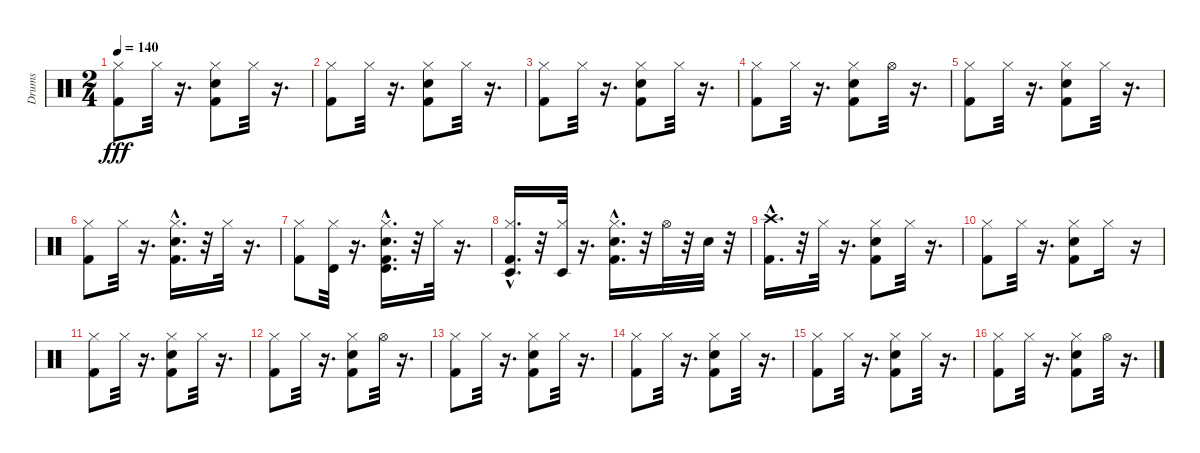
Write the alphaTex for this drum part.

\track ("Drums" "Drums") {instrument percussion}
\staff {score}
\articulation defaults
\ts (2 4)
\tempo 140
\clef neutral
\ks c
("Kick (hit) 2" "Hi-Hat (closed)").8{dy fff} "Hi-Hat (closed)".32 r.16{d} ("Snare (hit) 2" "Kick (hit) 2" "Hi-Hat (closed)").8 "Hi-Hat (closed)".32 r.16{d} |
("Kick (hit) 2" "Hi-Hat (closed)").8 "Hi-Hat (closed)".32 r.16{d} ("Snare (hit) 2" "Kick (hit) 2" "Hi-Hat (closed)").8 "Hi-Hat (closed)".32 r.16{d} |
("Kick (hit) 2" "Hi-Hat (closed)").8 "Hi-Hat (closed)".32 r.16{d} ("Snare (hit) 2" "Kick (hit) 2" "Hi-Hat (closed)").8 "Hi-Hat (closed)".32 r.16{d} |
("Kick (hit) 2" "Hi-Hat (closed)").8 "Hi-Hat (closed)".32 r.16{d} ("Snare (hit) 2" "Kick (hit) 2" "Hi-Hat (closed)").8 "Hi-Hat (open)".32 r.16{d} |
("Kick (hit) 2" "Hi-Hat (closed)").8 "Hi-Hat (closed)".32 r.16{d} ("Snare (hit) 2" "Kick (hit) 2" "Hi-Hat (closed)").8 "Hi-Hat (closed)".32 r.16{d} |
("Kick (hit) 2" "Hi-Hat (closed)").8 "Hi-Hat (closed)".32 r.16{d} ("Snare (hit) 2"{hac} "Kick (hit) 2"{hac} "Hi-Hat (closed)").16{d} r.32 "Hi-Hat (closed)".32 r.16{d} |
("Kick (hit) 2" "Hi-Hat (closed)").8 ("Timbale high (hit)" "Hi-Hat (closed)").32 r.16{d} ("Kick (hit) 2"{hac} "Hi-Hat (closed)" "Timbale high (hit)" "Snare (hit) 2"{hac}).16{d} r.32 "Hi-Hat (closed)".32 r.16{d} |
("Hi-Hat (closed)" "Kick (hit) 2"{hac} "Timbale low (hit)").16{d} r.32 ("Timbale low (hit)" "Hi-Hat (closed)").32 r.16{d} ("Hi-Hat (closed)" "Snare (hit) 2"{hac} "Kick (hit) 2"{hac}).16{d} r.32 "Hi-Hat (open)".32 r.32 "Snare (hit) 2".32 r.32 |
("Kick (hit) 2"{hac} "Crash high (hit)").16{d} r.32 "Hi-Hat (closed)".32 r.16{d} ("Kick (hit) 2" "Snare (hit) 2" "Hi-Hat (closed)").8 "Hi-Hat (closed)".32 r.16{d} |
("Kick (hit) 2" "Hi-Hat (closed)").8 "Hi-Hat (closed)".32 r.16{d} ("Hi-Hat (closed)" "Snare (hit) 2" "Kick (hit) 2").8 "Hi-Hat (closed)".16 r.16 |
("Kick (hit) 2" "Hi-Hat (closed)").8 "Hi-Hat (closed)".32 r.16{d} ("Snare (hit) 2" "Kick (hit) 2" "Hi-Hat (closed)").8 "Hi-Hat (closed)".32 r.16{d} |
("Kick (hit) 2" "Hi-Hat (closed)").8 "Hi-Hat (closed)".32 r.16{d} ("Kick (hit) 2" "Snare (hit) 2" "Hi-Hat (closed)").8 "Hi-Hat (open)".32 r.16{d} |
("Kick (hit) 2" "Hi-Hat (closed)").8 "Hi-Hat (closed)".32 r.16{d} ("Kick (hit) 2" "Hi-Hat (closed)" "Snare (hit) 2").8 "Hi-Hat (closed)".32 r.16{d} |
("Kick (hit) 2" "Hi-Hat (closed)").8 "Hi-Hat (closed)".32 r.16{d} ("Kick (hit) 2" "Hi-Hat (closed)" "Snare (hit) 2").8 "Hi-Hat (closed)".32 r.16{d} |
("Kick (hit) 2" "Hi-Hat (closed)").8 "Hi-Hat (closed)".32 r.16{d} ("Snare (hit) 2" "Kick (hit) 2" "Hi-Hat (closed)").8 "Hi-Hat (closed)".32 r.16{d} |
("Kick (hit) 2" "Hi-Hat (closed)").8 "Hi-Hat (closed)".32 r.16{d} ("Snare (hit) 2" "Kick (hit) 2" "Hi-Hat (closed)").8 "Hi-Hat (open)".32 r.16{d}
